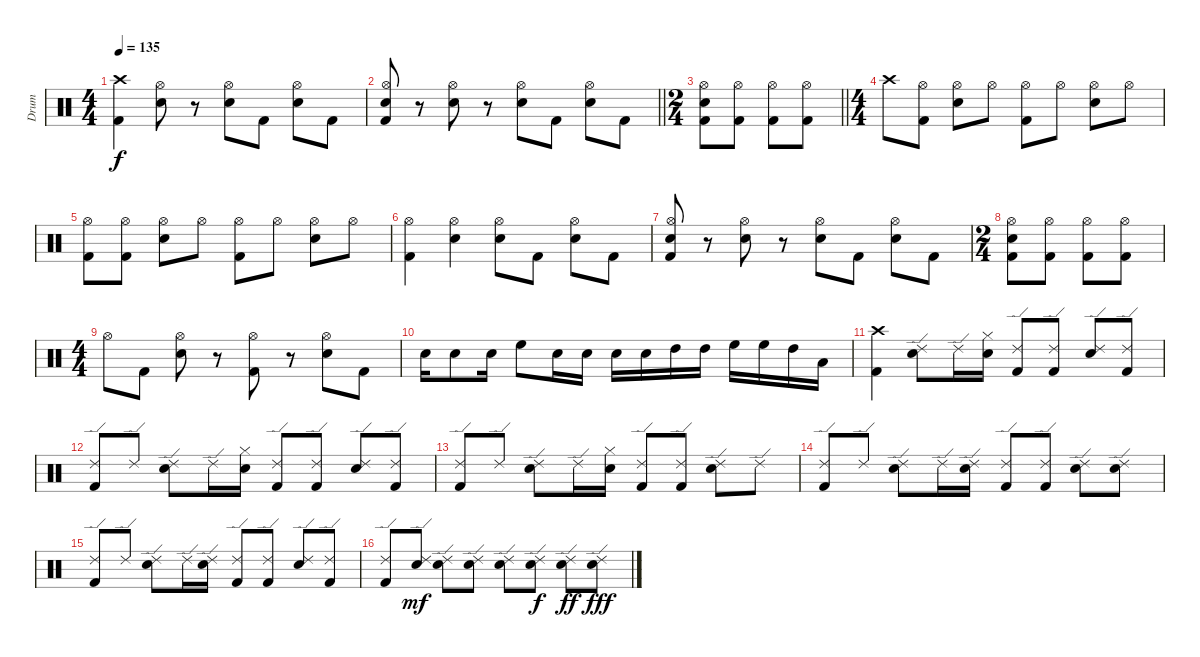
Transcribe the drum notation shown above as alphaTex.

\track ("Drum" "Drum") {instrument percussion}
\staff {score}
\articulation defaults
\ts (4 4)
\tempo 135
\clef neutral
\ks c
("Kick (hit) 2" "Crash high (hit)").4{dy f} ("Hi-Hat (open)" "Snare (hit) 2").8 r.8 ("Hi-Hat (open)" "Snare (hit) 2").8 "Kick (hit) 2".8 ("Hi-Hat (open)" "Snare (hit) 2").8 "Kick (hit) 2".8 |
\barLineRight lightlight
("Kick (hit) 2" "Hi-Hat (open)" "Snare (hit) 2").8 r.8 ("Hi-Hat (open)" "Snare (hit) 2").8 r.8 ("Hi-Hat (open)" "Snare (hit) 2").8 "Kick (hit) 2".8 ("Hi-Hat (open)" "Snare (hit) 2").8 "Kick (hit) 2".8 |
\ts (2 4)
\barLineRight lightlight
("Kick (hit) 2" "Hi-Hat (open)" "Snare (hit) 2").8 ("Kick (hit) 2" "Hi-Hat (open)").8 ("Kick (hit) 2" "Hi-Hat (open)").8 ("Kick (hit) 2" "Hi-Hat (open)").8 |
\ts (4 4)
"Crash high (hit)".8 ("Kick (hit) 2" "Hi-Hat (open)").8 ("Hi-Hat (open)" "Snare (hit) 2").8 "Hi-Hat (open)".8 ("Kick (hit) 2" "Hi-Hat (open)").8 "Hi-Hat (open)".8 ("Hi-Hat (open)" "Snare (hit) 2").8 "Hi-Hat (open)".8 |
("Kick (hit) 2" "Hi-Hat (open)").8 ("Kick (hit) 2" "Hi-Hat (open)").8 ("Hi-Hat (open)" "Snare (hit) 2").8 "Hi-Hat (open)".8 ("Kick (hit) 2" "Hi-Hat (open)").8 "Hi-Hat (open)".8 ("Hi-Hat (open)" "Snare (hit) 2").8 "Hi-Hat (open)".8 |
("Kick (hit) 2" "Hi-Hat (open)").4 ("Hi-Hat (open)" "Snare (hit) 2").4 ("Hi-Hat (open)" "Snare (hit) 2").8 "Kick (hit) 2".8 ("Hi-Hat (open)" "Snare (hit) 2").8 "Kick (hit) 2".8 |
("Kick (hit) 2" "Hi-Hat (open)" "Snare (hit) 2").8 r.8 ("Hi-Hat (open)" "Snare (hit) 2").8 r.8 ("Hi-Hat (open)" "Snare (hit) 2").8 "Kick (hit) 2".8 ("Hi-Hat (open)" "Snare (hit) 2").8 "Kick (hit) 2".8 |
\ts (2 4)
("Kick (hit) 2" "Hi-Hat (open)" "Snare (hit) 2").8 ("Kick (hit) 2" "Hi-Hat (open)").8 ("Kick (hit) 2" "Hi-Hat (open)").8 ("Kick (hit) 2" "Hi-Hat (open)").8 |
\ts (4 4)
"Hi-Hat (open)".8 "Kick (hit) 2".8 ("Hi-Hat (open)" "Snare (hit) 2").8 r.8 ("Kick (hit) 2" "Hi-Hat (open)").8 r.8 ("Hi-Hat (open)" "Snare (hit) 2").8 "Kick (hit) 2".8 |
"Snare (hit) 2".16 "Snare (hit) 2".8 "Snare (hit) 2".16 "High Floor Tom (hit)".8 "Snare (hit) 2".16 "Snare (hit) 2".16 "Snare (hit) 2".16 "Snare (hit) 2".16 "High Tom (hit)".16 "High Tom (hit)".16 "High Floor Tom (hit)".16 "High Floor Tom (hit)".16 "High Tom (hit)".16 "Low Tom (hit)".16 |
("Kick (hit) 2" "Crash high (hit)").4 ("Ride (edge) 2" "Snare (hit) 2").8 "Ride (edge) 2".16 ("Hi-Hat (closed)" "Snare (hit) 2").16 ("Kick (hit) 2" "Ride (edge) 2").8 ("Kick (hit) 2" "Ride (edge) 2").8 ("Ride (edge) 2" "Snare (hit) 2").8 ("Kick (hit) 2" "Ride (edge) 2").8 |
("Kick (hit) 2" "Ride (edge) 2").8 "Ride (edge) 2".8 ("Ride (edge) 2" "Snare (hit) 2").8 "Ride (edge) 2".16 ("Hi-Hat (closed)" "Snare (hit) 2").16 ("Kick (hit) 2" "Ride (edge) 2").8 ("Kick (hit) 2" "Ride (edge) 2").8 ("Ride (edge) 2" "Snare (hit) 2").8 ("Kick (hit) 2" "Ride (edge) 2").8 |
("Kick (hit) 2" "Ride (edge) 2").8 "Ride (edge) 2".8 ("Ride (edge) 2" "Snare (hit) 2").8 "Ride (edge) 2".16 ("Hi-Hat (closed)" "Snare (hit) 2").16 ("Kick (hit) 2" "Ride (edge) 2").8 ("Kick (hit) 2" "Ride (edge) 2").8 ("Ride (edge) 2" "Snare (hit) 2").8 "Ride (edge) 2".8 |
("Kick (hit) 2" "Ride (edge) 2").8 "Ride (edge) 2".8 ("Ride (edge) 2" "Snare (hit) 2").8 "Ride (edge) 2".16 ("Ride (edge) 2" "Snare (hit) 2").16 ("Kick (hit) 2" "Ride (edge) 2").8 ("Kick (hit) 2" "Ride (edge) 2").8 ("Ride (edge) 2" "Snare (hit) 2").8 ("Ride (edge) 2" "Snare (hit) 2").8 |
("Kick (hit) 2" "Ride (edge) 2").8 "Ride (edge) 2".8 ("Ride (edge) 2" "Snare (hit) 2").8 "Ride (edge) 2".16 ("Ride (edge) 2" "Snare (hit) 2").16 ("Kick (hit) 2" "Ride (edge) 2").8 ("Kick (hit) 2" "Ride (edge) 2").8 ("Ride (edge) 2" "Snare (hit) 2").8 ("Kick (hit) 2" "Ride (edge) 2").8 |
("Kick (hit) 2" "Ride (edge) 2").8 ("Ride (edge) 2" "Snare (hit) 2").8{dy mf} ("Ride (edge) 2" "Snare (hit) 2").8 ("Ride (edge) 2" "Snare (hit) 2").8 ("Ride (edge) 2" "Snare (hit) 2").8 ("Ride (edge) 2" "Snare (hit) 2").8{dy f} ("Ride (edge) 2" "Snare (hit) 2").8{dy ff} ("Ride (edge) 2" "Snare (hit) 2").8{dy fff}
